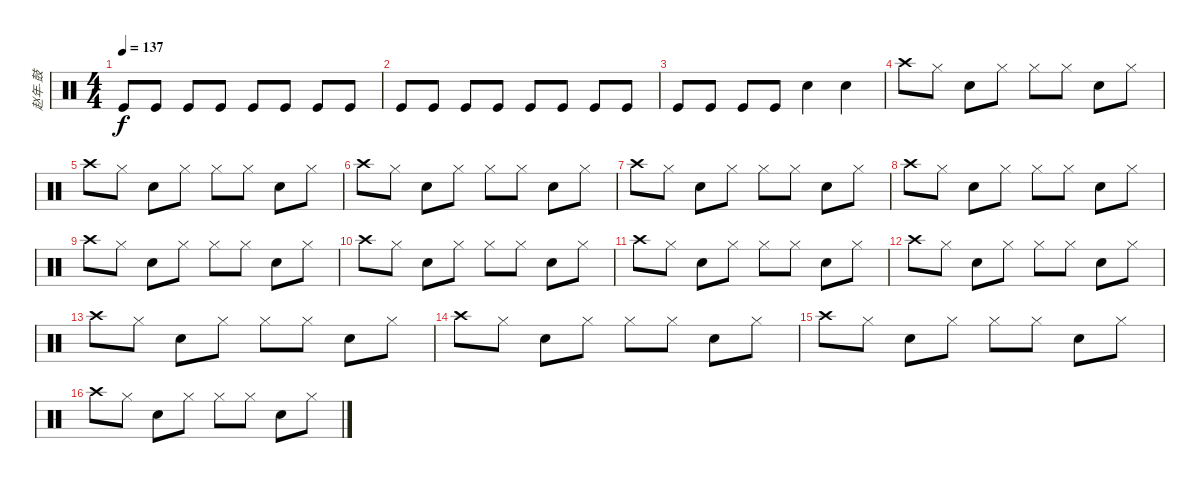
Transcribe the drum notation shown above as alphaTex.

\track ("赵年-鼓" "赵年-鼓") {instrument percussion}
\staff {score}
\articulation defaults
\ts (4 4)
\tempo 137
\clef neutral
\ks c "Kick (hit)".8{dy f volume 4} "Kick (hit)".8{volume 5} "Kick (hit)".8{volume 8} "Kick (hit)".8{volume 9} "Kick (hit)".8{volume 10} "Kick (hit)".8 "Kick (hit)".8{volume 8} "Kick (hit)".8
|
"Kick (hit)".8 "Kick (hit)".8 "Kick (hit)".8 "Kick (hit)".8 "Kick (hit)".8 "Kick (hit)".8 "Kick (hit)".8 "Kick (hit)".8 |
"Kick (hit)".8 "Kick (hit)".8 "Kick (hit)".8 "Kick (hit)".8 "Snare (hit) 2".4 "Snare (hit) 2".4 |
"Crash high (hit)".8 "Hi-Hat (closed)".8 "Snare (hit) 2".8 "Hi-Hat (closed)".8 "Hi-Hat (closed)".8 "Hi-Hat (closed)".8 "Snare (hit) 2".8 "Hi-Hat (closed)".8 |
"Crash high (hit)".8 "Hi-Hat (closed)".8 "Snare (hit) 2".8 "Hi-Hat (closed)".8 "Hi-Hat (closed)".8 "Hi-Hat (closed)".8 "Snare (hit) 2".8 "Hi-Hat (closed)".8 |
"Crash high (hit)".8 "Hi-Hat (closed)".8 "Snare (hit) 2".8 "Hi-Hat (closed)".8 "Hi-Hat (closed)".8 "Hi-Hat (closed)".8 "Snare (hit) 2".8 "Hi-Hat (closed)".8 |
"Crash high (hit)".8 "Hi-Hat (closed)".8 "Snare (hit) 2".8 "Hi-Hat (closed)".8 "Hi-Hat (closed)".8 "Hi-Hat (closed)".8 "Snare (hit) 2".8 "Hi-Hat (closed)".8 |
"Crash high (hit)".8 "Hi-Hat (closed)".8 "Snare (hit) 2".8 "Hi-Hat (closed)".8 "Hi-Hat (closed)".8 "Hi-Hat (closed)".8 "Snare (hit) 2".8 "Hi-Hat (closed)".8 |
"Crash high (hit)".8 "Hi-Hat (closed)".8 "Snare (hit) 2".8 "Hi-Hat (closed)".8 "Hi-Hat (closed)".8 "Hi-Hat (closed)".8 "Snare (hit) 2".8 "Hi-Hat (closed)".8 |
"Crash high (hit)".8 "Hi-Hat (closed)".8 "Snare (hit) 2".8 "Hi-Hat (closed)".8 "Hi-Hat (closed)".8 "Hi-Hat (closed)".8 "Snare (hit) 2".8 "Hi-Hat (closed)".8 |
"Crash high (hit)".8 "Hi-Hat (closed)".8 "Snare (hit) 2".8 "Hi-Hat (closed)".8 "Hi-Hat (closed)".8 "Hi-Hat (closed)".8 "Snare (hit) 2".8 "Hi-Hat (closed)".8 |
"Crash high (hit)".8 "Hi-Hat (closed)".8 "Snare (hit) 2".8 "Hi-Hat (closed)".8 "Hi-Hat (closed)".8 "Hi-Hat (closed)".8 "Snare (hit) 2".8 "Hi-Hat (closed)".8 |
"Crash high (hit)".8 "Hi-Hat (closed)".8 "Snare (hit) 2".8 "Hi-Hat (closed)".8 "Hi-Hat (closed)".8 "Hi-Hat (closed)".8 "Snare (hit) 2".8 "Hi-Hat (closed)".8 |
"Crash high (hit)".8 "Hi-Hat (closed)".8 "Snare (hit) 2".8 "Hi-Hat (closed)".8 "Hi-Hat (closed)".8 "Hi-Hat (closed)".8 "Snare (hit) 2".8 "Hi-Hat (closed)".8 |
"Crash high (hit)".8 "Hi-Hat (closed)".8 "Snare (hit) 2".8 "Hi-Hat (closed)".8 "Hi-Hat (closed)".8 "Hi-Hat (closed)".8 "Snare (hit) 2".8 "Hi-Hat (closed)".8 |
"Crash high (hit)".8 "Hi-Hat (closed)".8 "Snare (hit) 2".8 "Hi-Hat (closed)".8 "Hi-Hat (closed)".8 "Hi-Hat (closed)".8 "Snare (hit) 2".8 "Hi-Hat (closed)".8
